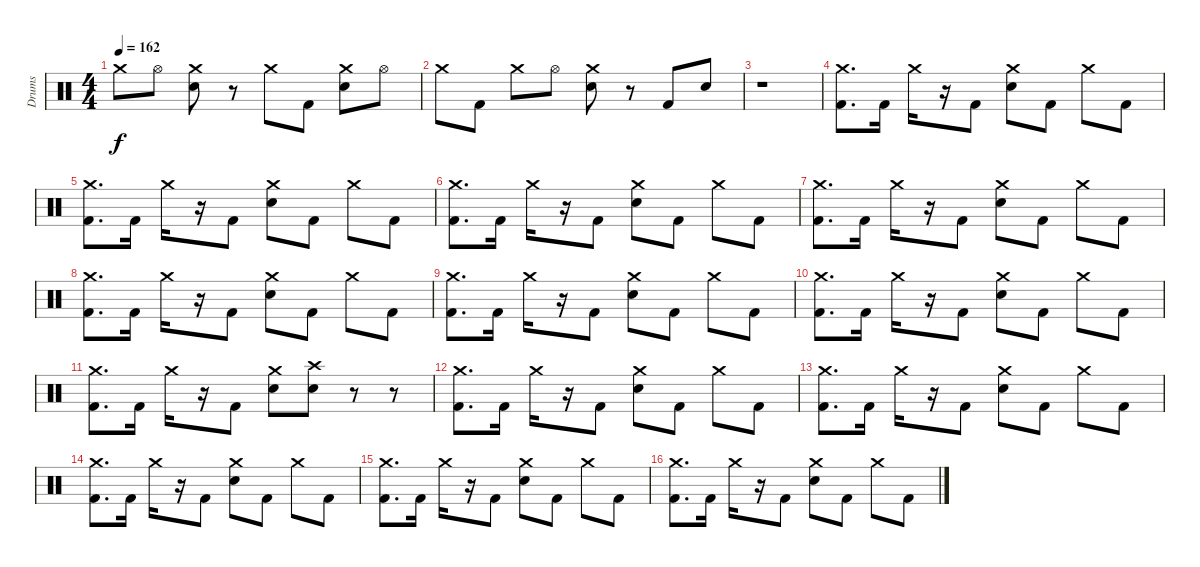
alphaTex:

\track ("Drums" "Drums") {instrument percussion}
\staff {score}
\articulation defaults
\ts (4 4)
\tempo 162
\clef neutral
\ks c "Crash medium (hit)".8{dy f} "Hi-Hat (open)".8
("Crash medium (hit)" "Electric Snare (hit)").8 r.8 "Crash medium (hit)".8 "Kick (hit) 2".8 ("Crash medium (hit)" "Electric Snare (hit)").8 "Hi-Hat (open)".8 |
"Crash medium (hit)".8 "Kick (hit) 2".8 "Crash medium (hit)".8 "Hi-Hat (open)".8 ("Crash medium (hit)" "Electric Snare (hit)").8 r.8 "Kick (hit) 2".8 "Electric Snare (hit)".8 |
r.1 |
("Crash medium (hit)" "Kick (hit) 2").8{d} "Kick (hit) 2".16 "Crash medium (hit)".16 r.16 "Kick (hit) 2".8 ("Crash medium (hit)" "Electric Snare (hit)").8 "Kick (hit) 2".8 "Crash medium (hit)".8 "Kick (hit) 2".8 |
("Crash medium (hit)" "Kick (hit) 2").8{d} "Kick (hit) 2".16 "Crash medium (hit)".16 r.16 "Kick (hit) 2".8 ("Crash medium (hit)" "Electric Snare (hit)").8 "Kick (hit) 2".8 "Crash medium (hit)".8 "Kick (hit) 2".8 |
("Crash medium (hit)" "Kick (hit) 2").8{d} "Kick (hit) 2".16 "Crash medium (hit)".16 r.16 "Kick (hit) 2".8 ("Crash medium (hit)" "Electric Snare (hit)").8 "Kick (hit) 2".8 "Crash medium (hit)".8 "Kick (hit) 2".8 |
("Crash medium (hit)" "Kick (hit) 2").8{d} "Kick (hit) 2".16 "Crash medium (hit)".16 r.16 "Kick (hit) 2".8 ("Crash medium (hit)" "Electric Snare (hit)").8 "Kick (hit) 2".8 "Crash medium (hit)".8 "Kick (hit) 2".8 |
("Crash medium (hit)" "Kick (hit) 2").8{d} "Kick (hit) 2".16 "Crash medium (hit)".16 r.16 "Kick (hit) 2".8 ("Crash medium (hit)" "Electric Snare (hit)").8 "Kick (hit) 2".8 "Crash medium (hit)".8 "Kick (hit) 2".8 |
("Crash medium (hit)" "Kick (hit) 2").8{d} "Kick (hit) 2".16 "Crash medium (hit)".16 r.16 "Kick (hit) 2".8 ("Crash medium (hit)" "Electric Snare (hit)").8 "Kick (hit) 2".8 "Crash medium (hit)".8 "Kick (hit) 2".8 |
("Crash medium (hit)" "Kick (hit) 2").8{d} "Kick (hit) 2".16 "Crash medium (hit)".16 r.16 "Kick (hit) 2".8 ("Crash medium (hit)" "Electric Snare (hit)").8 "Kick (hit) 2".8 "Crash medium (hit)".8 "Kick (hit) 2".8 |
("Crash medium (hit)" "Kick (hit) 2").8{d} "Kick (hit) 2".16 "Crash medium (hit)".16 r.16 "Kick (hit) 2".8 ("Crash medium (hit)" "Electric Snare (hit)").8 ("Crash high (hit)" "Electric Snare (hit)").8 r.8 r.8 |
("Crash medium (hit)" "Kick (hit) 2").8{d} "Kick (hit) 2".16 "Crash medium (hit)".16 r.16 "Kick (hit) 2".8 ("Crash medium (hit)" "Electric Snare (hit)").8 "Kick (hit) 2".8 "Crash medium (hit)".8 "Kick (hit) 2".8 |
("Crash medium (hit)" "Kick (hit) 2").8{d} "Kick (hit) 2".16 "Crash medium (hit)".16 r.16 "Kick (hit) 2".8 ("Crash medium (hit)" "Electric Snare (hit)").8 "Kick (hit) 2".8 "Crash medium (hit)".8 "Kick (hit) 2".8 |
("Crash medium (hit)" "Kick (hit) 2").8{d} "Kick (hit) 2".16 "Crash medium (hit)".16 r.16 "Kick (hit) 2".8 ("Crash medium (hit)" "Electric Snare (hit)").8 "Kick (hit) 2".8 "Crash medium (hit)".8 "Kick (hit) 2".8 |
("Crash medium (hit)" "Kick (hit) 2").8{d} "Kick (hit) 2".16 "Crash medium (hit)".16 r.16 "Kick (hit) 2".8 ("Crash medium (hit)" "Electric Snare (hit)").8 "Kick (hit) 2".8 "Crash medium (hit)".8 "Kick (hit) 2".8 |
("Crash medium (hit)" "Kick (hit) 2").8{d} "Kick (hit) 2".16 "Crash medium (hit)".16 r.16 "Kick (hit) 2".8 ("Crash medium (hit)" "Electric Snare (hit)").8 "Kick (hit) 2".8 "Crash medium (hit)".8 "Kick (hit) 2".8
